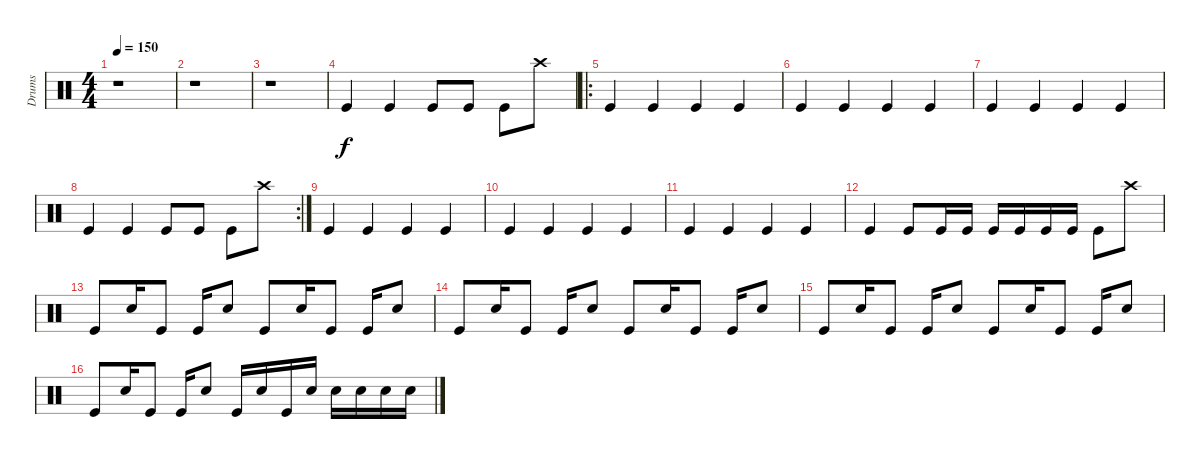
\track ("Drums" "Drums") {instrument percussion}
\staff {score}
\articulation defaults
\ts (4 4)
\tempo 150
\clef neutral
\ks c
r.1{dy f} |
r.1 |
r.1 |
"Kick (hit)".4 "Kick (hit)".4 "Kick (hit)".8 "Kick (hit)".8 "Kick (hit)".8 "Crash high (hit)".8 |
\ro "Kick (hit)".4 "Kick (hit)".4 "Kick (hit)".4 "Kick (hit)".4
|
"Kick (hit)".4 "Kick (hit)".4 "Kick (hit)".4 "Kick (hit)".4 |
"Kick (hit)".4 "Kick (hit)".4 "Kick (hit)".4 "Kick (hit)".4 |
\rc 2 "Kick (hit)".4 "Kick (hit)".4 "Kick (hit)".8 "Kick (hit)".8 "Kick (hit)".8 "Crash high (hit)".8
|
"Kick (hit)".4 "Kick (hit)".4 "Kick (hit)".4 "Kick (hit)".4 |
"Kick (hit)".4 "Kick (hit)".4 "Kick (hit)".4 "Kick (hit)".4 |
"Kick (hit)".4 "Kick (hit)".4 "Kick (hit)".4 "Kick (hit)".4 |
"Kick (hit)".4 "Kick (hit)".8 "Kick (hit)".16 "Kick (hit)".16 "Kick (hit)".16 "Kick (hit)".16 "Kick (hit)".16 "Kick (hit)".16 "Kick (hit)".8 "Crash high (hit)".8 |
"Kick (hit)".8 "Electric Snare (hit)".16 "Kick (hit)".8 "Kick (hit)".16 "Electric Snare (hit)".8 "Kick (hit)".8 "Electric Snare (hit)".16 "Kick (hit)".8 "Kick (hit)".16 "Electric Snare (hit)".8 |
"Kick (hit)".8 "Electric Snare (hit)".16 "Kick (hit)".8 "Kick (hit)".16 "Electric Snare (hit)".8 "Kick (hit)".8 "Electric Snare (hit)".16 "Kick (hit)".8 "Kick (hit)".16 "Electric Snare (hit)".8 |
"Kick (hit)".8 "Electric Snare (hit)".16 "Kick (hit)".8 "Kick (hit)".16 "Electric Snare (hit)".8 "Kick (hit)".8 "Electric Snare (hit)".16 "Kick (hit)".8 "Kick (hit)".16 "Electric Snare (hit)".8 |
"Kick (hit)".8 "Electric Snare (hit)".16 "Kick (hit)".8 "Kick (hit)".16 "Electric Snare (hit)".8 "Kick (hit)".16 "Electric Snare (hit)".16 "Kick (hit)".16 "Electric Snare (hit)".16 "Electric Snare (hit)".16 "Electric Snare (hit)".16 "Electric Snare (hit)".16 "Electric Snare (hit)".16
